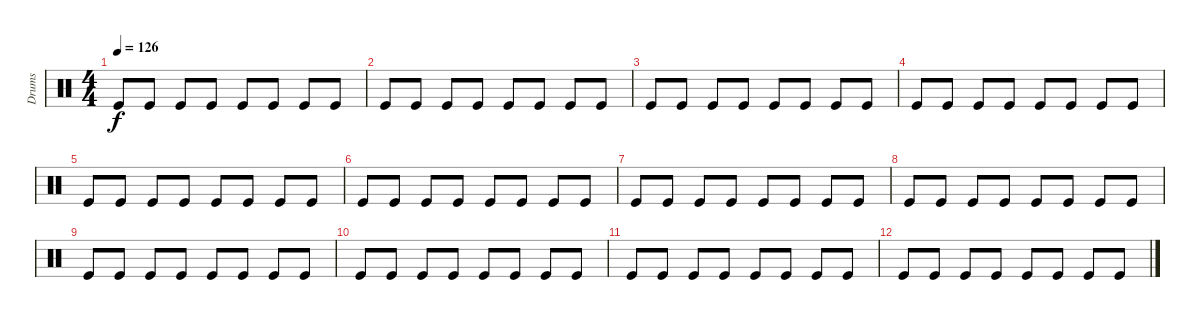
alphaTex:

\track ("Drums" "Drums") {instrument percussion}
\staff {score}
\articulation defaults
\ts (4 4)
\tempo 126
\clef neutral
\ks c "Kick (hit)".8{dy f} "Kick (hit)".8 "Kick (hit)".8 "Kick (hit)".8 "Kick (hit)".8 "Kick (hit)".8 "Kick (hit)".8 "Kick (hit)".8
|
"Kick (hit)".8 "Kick (hit)".8 "Kick (hit)".8 "Kick (hit)".8 "Kick (hit)".8 "Kick (hit)".8 "Kick (hit)".8 "Kick (hit)".8 |
"Kick (hit)".8 "Kick (hit)".8 "Kick (hit)".8 "Kick (hit)".8 "Kick (hit)".8 "Kick (hit)".8 "Kick (hit)".8 "Kick (hit)".8 |
"Kick (hit)".8 "Kick (hit)".8 "Kick (hit)".8 "Kick (hit)".8 "Kick (hit)".8 "Kick (hit)".8 "Kick (hit)".8 "Kick (hit)".8 |
"Kick (hit)".8 "Kick (hit)".8 "Kick (hit)".8 "Kick (hit)".8 "Kick (hit)".8 "Kick (hit)".8 "Kick (hit)".8 "Kick (hit)".8 |
"Kick (hit)".8 "Kick (hit)".8 "Kick (hit)".8 "Kick (hit)".8 "Kick (hit)".8 "Kick (hit)".8 "Kick (hit)".8 "Kick (hit)".8 |
"Kick (hit)".8 "Kick (hit)".8 "Kick (hit)".8 "Kick (hit)".8 "Kick (hit)".8 "Kick (hit)".8 "Kick (hit)".8 "Kick (hit)".8 |
"Kick (hit)".8 "Kick (hit)".8 "Kick (hit)".8 "Kick (hit)".8 "Kick (hit)".8 "Kick (hit)".8 "Kick (hit)".8 "Kick (hit)".8 |
"Kick (hit)".8 "Kick (hit)".8 "Kick (hit)".8 "Kick (hit)".8 "Kick (hit)".8 "Kick (hit)".8 "Kick (hit)".8 "Kick (hit)".8 |
"Kick (hit)".8 "Kick (hit)".8 "Kick (hit)".8 "Kick (hit)".8 "Kick (hit)".8 "Kick (hit)".8 "Kick (hit)".8 "Kick (hit)".8 |
"Kick (hit)".8 "Kick (hit)".8 "Kick (hit)".8 "Kick (hit)".8 "Kick (hit)".8 "Kick (hit)".8 "Kick (hit)".8 "Kick (hit)".8 |
"Kick (hit)".8 "Kick (hit)".8 "Kick (hit)".8 "Kick (hit)".8 "Kick (hit)".8 "Kick (hit)".8 "Kick (hit)".8 "Kick (hit)".8
